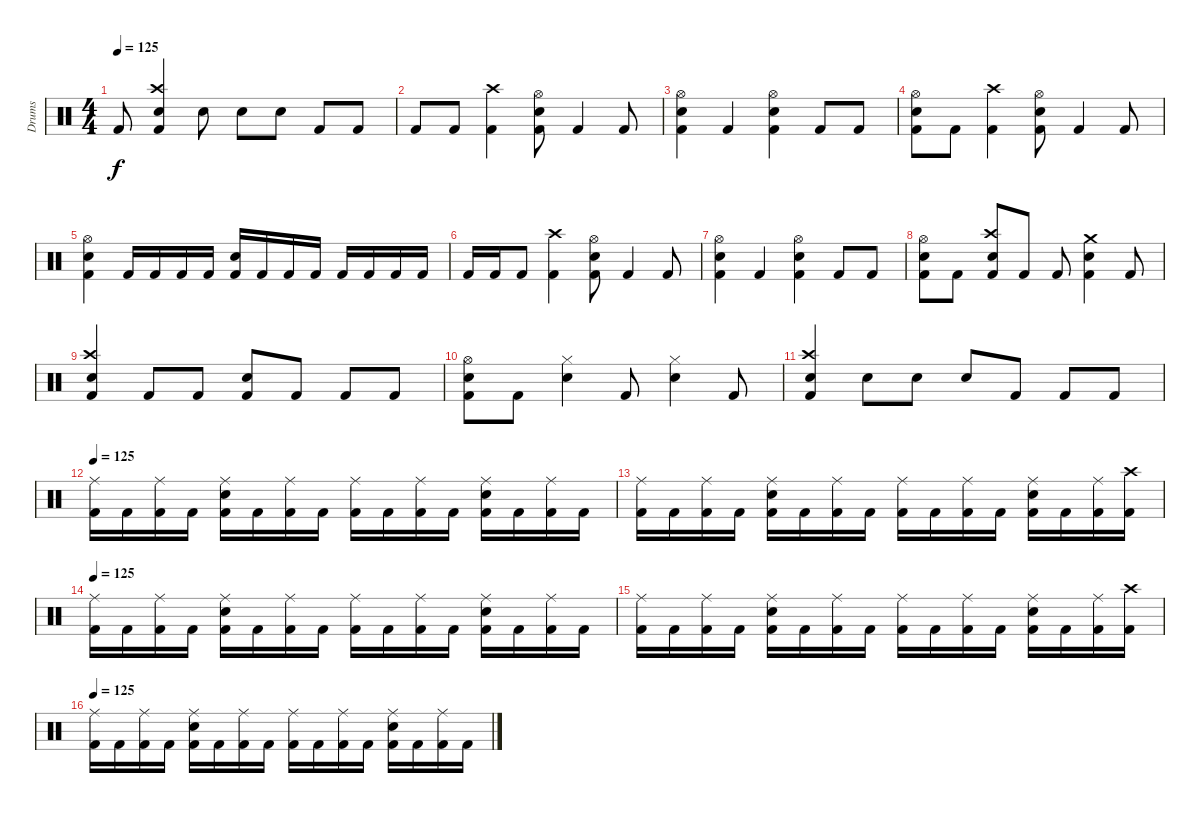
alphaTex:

\track ("Drums" "Drums") {instrument percussion}
\staff {score}
\articulation defaults
\ts (4 4)
\tempo 125
\clef neutral
\ks c "Kick (hit) 2".8{dy f}
("Crash high (hit)" "Electric Snare (hit)" "Kick (hit) 2").4 "Electric Snare (hit)".8 "Electric Snare (hit)".8 "Electric Snare (hit)".8 "Kick (hit) 2".8 "Kick (hit) 2".8 |
"Kick (hit) 2".8 "Kick (hit) 2".8 ("Crash high (hit)" "Kick (hit) 2").4 ("Hi-Hat (open)" "Electric Snare (hit)" "Kick (hit) 2").8 "Kick (hit) 2".4 "Kick (hit) 2".8 |
("Hi-Hat (open)" "Electric Snare (hit)" "Kick (hit) 2").4 "Kick (hit) 2".4 ("Hi-Hat (open)" "Electric Snare (hit)" "Kick (hit) 2").4 "Kick (hit) 2".8 "Kick (hit) 2".8 |
("Hi-Hat (open)" "Electric Snare (hit)" "Kick (hit) 2").8 "Kick (hit) 2".8 ("Crash high (hit)" "Kick (hit) 2").4 ("Hi-Hat (open)" "Electric Snare (hit)" "Kick (hit) 2").8 "Kick (hit) 2".4 "Kick (hit) 2".8 |
("Hi-Hat (open)" "Electric Snare (hit)" "Kick (hit) 2").4 "Kick (hit) 2".16 "Kick (hit) 2".16 "Kick (hit) 2".16 "Kick (hit) 2".16 ("Electric Snare (hit)" "Kick (hit) 2").16 "Kick (hit) 2".16 "Kick (hit) 2".16 "Kick (hit) 2".16 "Kick (hit) 2".16 "Kick (hit) 2".16 "Kick (hit) 2".16 "Kick (hit) 2".16 |
"Kick (hit) 2".16 "Kick (hit) 2".16 "Kick (hit) 2".8 ("Crash high (hit)" "Kick (hit) 2").4 ("Hi-Hat (open)" "Electric Snare (hit)" "Kick (hit) 2").8 "Kick (hit) 2".4 "Kick (hit) 2".8 |
("Hi-Hat (open)" "Electric Snare (hit)" "Kick (hit) 2").4 "Kick (hit) 2".4 ("Hi-Hat (open)" "Electric Snare (hit)" "Kick (hit) 2").4 "Kick (hit) 2".8 "Kick (hit) 2".8 |
("Hi-Hat (open)" "Electric Snare (hit)" "Kick (hit) 2").8 "Kick (hit) 2".8 ("Crash high (hit)" "Electric Snare (hit)" "Kick (hit) 2").8 "Kick (hit) 2".8 "Kick (hit) 2".8 ("Crash medium (hit)" "Electric Snare (hit)" "Kick (hit) 2").4 "Kick (hit) 2".8 |
("Crash high (hit)" "Electric Snare (hit)" "Kick (hit) 2").4 "Kick (hit) 2".8 "Kick (hit) 2".8 ("Electric Snare (hit)" "Kick (hit) 2").8 "Kick (hit) 2".8 "Kick (hit) 2".8 "Kick (hit) 2".8 |
("Hi-Hat (open)" "Electric Snare (hit)" "Kick (hit) 2").8 "Kick (hit) 2".8 ("Hi-Hat (closed)" "Electric Snare (hit)").4 "Kick (hit) 2".8 ("Hi-Hat (closed)" "Electric Snare (hit)").4 "Kick (hit) 2".8 |
("Crash high (hit)" "Electric Snare (hit)" "Kick (hit) 2").4 "Electric Snare (hit)".8 "Electric Snare (hit)".8 "Electric Snare (hit)".8 "Kick (hit) 2".8 "Kick (hit) 2".8 "Kick (hit) 2".8 |
\tempo 125
("Ride (middle)" "Kick (hit) 2").16 "Kick (hit) 2".16 ("Ride (middle)" "Kick (hit) 2").16 "Kick (hit) 2".16 ("Ride (middle)" "Electric Snare (hit)" "Kick (hit) 2").16 "Kick (hit) 2".16 ("Ride (middle)" "Kick (hit) 2").16 "Kick (hit) 2".16 ("Ride (middle)" "Kick (hit) 2").16 "Kick (hit) 2".16 ("Ride (middle)" "Kick (hit) 2").16 "Kick (hit) 2".16 ("Ride (middle)" "Electric Snare (hit)" "Kick (hit) 2").16 "Kick (hit) 2".16 ("Ride (middle)" "Kick (hit) 2").16 "Kick (hit) 2".16 |
("Ride (middle)" "Kick (hit) 2").16 "Kick (hit) 2".16 ("Ride (middle)" "Kick (hit) 2").16 "Kick (hit) 2".16 ("Ride (middle)" "Electric Snare (hit)" "Kick (hit) 2").16 "Kick (hit) 2".16 ("Ride (middle)" "Kick (hit) 2").16 "Kick (hit) 2".16 ("Ride (middle)" "Kick (hit) 2").16 "Kick (hit) 2".16 ("Ride (middle)" "Kick (hit) 2").16 "Kick (hit) 2".16 ("Ride (middle)" "Electric Snare (hit)" "Kick (hit) 2").16 "Kick (hit) 2".16 ("Ride (middle)" "Kick (hit) 2").16 ("Crash high (hit)" "Kick (hit) 2").16 |
\tempo 125
("Ride (middle)" "Kick (hit) 2").16 "Kick (hit) 2".16 ("Ride (middle)" "Kick (hit) 2").16 "Kick (hit) 2".16 ("Ride (middle)" "Electric Snare (hit)" "Kick (hit) 2").16 "Kick (hit) 2".16 ("Ride (middle)" "Kick (hit) 2").16 "Kick (hit) 2".16 ("Ride (middle)" "Kick (hit) 2").16 "Kick (hit) 2".16 ("Ride (middle)" "Kick (hit) 2").16 "Kick (hit) 2".16 ("Ride (middle)" "Electric Snare (hit)" "Kick (hit) 2").16 "Kick (hit) 2".16 ("Ride (middle)" "Kick (hit) 2").16 "Kick (hit) 2".16 |
("Ride (middle)" "Kick (hit) 2").16 "Kick (hit) 2".16 ("Ride (middle)" "Kick (hit) 2").16 "Kick (hit) 2".16 ("Ride (middle)" "Electric Snare (hit)" "Kick (hit) 2").16 "Kick (hit) 2".16 ("Ride (middle)" "Kick (hit) 2").16 "Kick (hit) 2".16 ("Ride (middle)" "Kick (hit) 2").16 "Kick (hit) 2".16 ("Ride (middle)" "Kick (hit) 2").16 "Kick (hit) 2".16 ("Ride (middle)" "Electric Snare (hit)" "Kick (hit) 2").16 "Kick (hit) 2".16 ("Ride (middle)" "Kick (hit) 2").16 ("Crash high (hit)" "Kick (hit) 2").16 |
\tempo 125
("Ride (middle)" "Kick (hit) 2").16 "Kick (hit) 2".16 ("Ride (middle)" "Kick (hit) 2").16 "Kick (hit) 2".16 ("Ride (middle)" "Electric Snare (hit)" "Kick (hit) 2").16 "Kick (hit) 2".16 ("Ride (middle)" "Kick (hit) 2").16 "Kick (hit) 2".16 ("Ride (middle)" "Kick (hit) 2").16 "Kick (hit) 2".16 ("Ride (middle)" "Kick (hit) 2").16 "Kick (hit) 2".16 ("Ride (middle)" "Electric Snare (hit)" "Kick (hit) 2").16 "Kick (hit) 2".16 ("Ride (middle)" "Kick (hit) 2").16 "Kick (hit) 2".16
